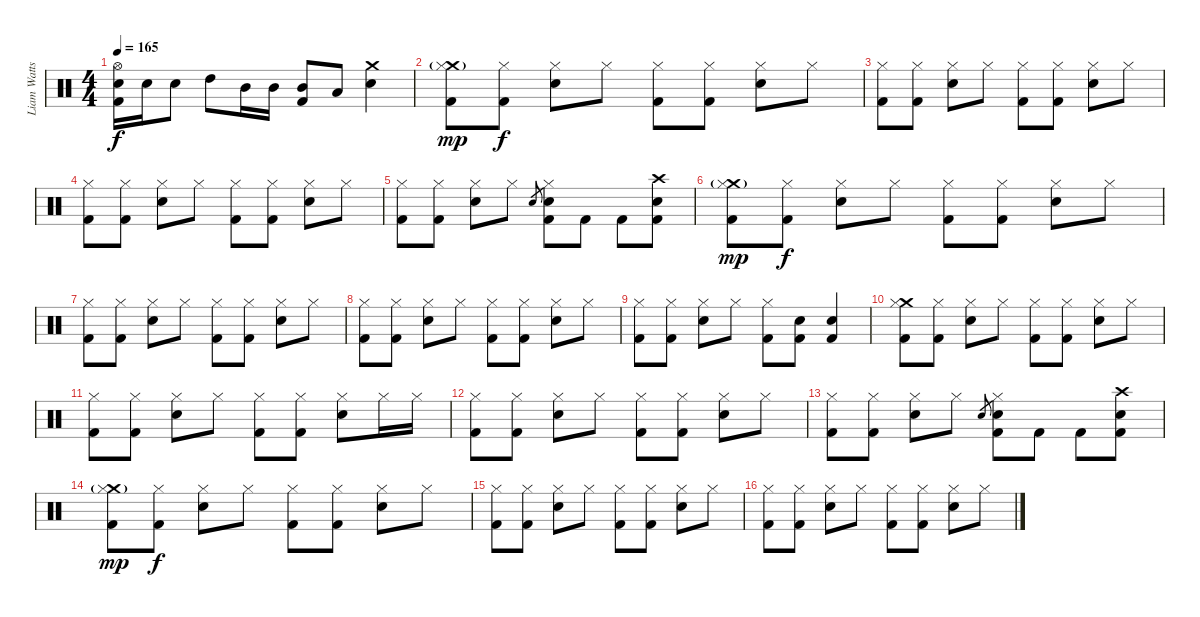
\track ("Liam Watts (Percussion)" "Liam Watts") {instrument percussion}
\staff {score}
\articulation defaults
\ts (4 4)
\tempo 165
\clef neutral
\ks c
("Hi-Hat (open)" "Snare (hit) 2" "Kick (hit) 2").16{dy f} "Snare (hit) 2".16 "Snare (hit) 2".8 "High Tom (hit)".8 "Mid Tom (hit)".16 "Mid Tom (hit)".16 ("Mid Tom (hit)" "Kick (hit) 2").8 "Low Tom (hit)".8 ("Crash medium (hit)" "Snare (hit) 2").4 |
("Crash medium (hit)"{g} "Hi-Hat (closed)" "Kick (hit) 2").8{dy mp} ("Hi-Hat (closed)" "Kick (hit) 2").8{dy f} ("Hi-Hat (closed)" "Snare (hit) 2").8 "Hi-Hat (closed)".8 ("Hi-Hat (closed)" "Kick (hit) 2").8 ("Hi-Hat (closed)" "Kick (hit) 2").8 ("Hi-Hat (closed)" "Snare (hit) 2").8 "Hi-Hat (closed)".8 |
("Hi-Hat (closed)" "Kick (hit) 2").8 ("Hi-Hat (closed)" "Kick (hit) 2").8 ("Hi-Hat (closed)" "Snare (hit) 2").8 "Hi-Hat (closed)".8 ("Hi-Hat (closed)" "Kick (hit) 2").8 ("Hi-Hat (closed)" "Kick (hit) 2").8 ("Hi-Hat (closed)" "Snare (hit) 2").8 "Hi-Hat (closed)".8 |
("Hi-Hat (closed)" "Kick (hit) 2").8 ("Hi-Hat (closed)" "Kick (hit) 2").8 ("Hi-Hat (closed)" "Snare (hit) 2").8 "Hi-Hat (closed)".8 ("Hi-Hat (closed)" "Kick (hit) 2").8 ("Hi-Hat (closed)" "Kick (hit) 2").8 ("Hi-Hat (closed)" "Snare (hit) 2").8 "Hi-Hat (closed)".8 |
("Hi-Hat (closed)" "Kick (hit) 2").8 ("Hi-Hat (closed)" "Kick (hit) 2").8 ("Hi-Hat (closed)" "Snare (hit) 2").8 "Hi-Hat (closed)".8 "Snare (hit) 2".8{gr} ("Hi-Hat (closed)" "Snare (hit) 2" "Kick (hit) 2").8 "Kick (hit) 2".8 "Kick (hit) 2".8 ("Crash high (hit)" "Snare (hit) 2" "Kick (hit) 2").8 |
("Crash medium (hit)"{g} "Hi-Hat (closed)" "Kick (hit) 2").8{dy mp} ("Hi-Hat (closed)" "Kick (hit) 2").8{dy f} ("Hi-Hat (closed)" "Snare (hit) 2").8 "Hi-Hat (closed)".8 ("Hi-Hat (closed)" "Kick (hit) 2").8 ("Hi-Hat (closed)" "Kick (hit) 2").8 ("Hi-Hat (closed)" "Snare (hit) 2").8 "Hi-Hat (closed)".8 |
("Hi-Hat (closed)" "Kick (hit) 2").8 ("Hi-Hat (closed)" "Kick (hit) 2").8 ("Hi-Hat (closed)" "Snare (hit) 2").8 "Hi-Hat (closed)".8 ("Hi-Hat (closed)" "Kick (hit) 2").8 ("Hi-Hat (closed)" "Kick (hit) 2").8 ("Hi-Hat (closed)" "Snare (hit) 2").8 "Hi-Hat (closed)".8 |
("Hi-Hat (closed)" "Kick (hit) 2").8 ("Hi-Hat (closed)" "Kick (hit) 2").8 ("Hi-Hat (closed)" "Snare (hit) 2").8 "Hi-Hat (closed)".8 ("Hi-Hat (closed)" "Kick (hit) 2").8 ("Hi-Hat (closed)" "Kick (hit) 2").8 ("Hi-Hat (closed)" "Snare (hit) 2").8 "Hi-Hat (closed)".8 |
("Hi-Hat (closed)" "Kick (hit) 2").8 ("Hi-Hat (closed)" "Kick (hit) 2").8 ("Hi-Hat (closed)" "Snare (hit) 2").8 "Hi-Hat (closed)".8 ("Hi-Hat (closed)" "Kick (hit) 2").8 ("Snare (hit) 2" "Kick (hit) 2").8 ("Snare (hit) 2" "Kick (hit) 2").4 |
("Crash medium (hit)" "Hi-Hat (closed)" "Kick (hit) 2").8 ("Hi-Hat (closed)" "Kick (hit) 2").8 ("Hi-Hat (closed)" "Snare (hit) 2").8 "Hi-Hat (closed)".8 ("Hi-Hat (closed)" "Kick (hit) 2").8 ("Hi-Hat (closed)" "Kick (hit) 2").8 ("Hi-Hat (closed)" "Snare (hit) 2").8 "Hi-Hat (closed)".8 |
("Hi-Hat (closed)" "Kick (hit) 2").8 ("Hi-Hat (closed)" "Kick (hit) 2").8 ("Hi-Hat (closed)" "Snare (hit) 2").8 "Hi-Hat (closed)".8 ("Hi-Hat (closed)" "Kick (hit) 2").8 ("Hi-Hat (closed)" "Kick (hit) 2").8 ("Hi-Hat (closed)" "Snare (hit) 2").8 "Hi-Hat (closed)".16 "Hi-Hat (closed)".16 |
("Hi-Hat (closed)" "Kick (hit) 2").8 ("Hi-Hat (closed)" "Kick (hit) 2").8 ("Hi-Hat (closed)" "Snare (hit) 2").8 "Hi-Hat (closed)".8 ("Hi-Hat (closed)" "Kick (hit) 2").8 ("Hi-Hat (closed)" "Kick (hit) 2").8 ("Hi-Hat (closed)" "Snare (hit) 2").8 "Hi-Hat (closed)".8 |
("Hi-Hat (closed)" "Kick (hit) 2").8 ("Hi-Hat (closed)" "Kick (hit) 2").8 ("Hi-Hat (closed)" "Snare (hit) 2").8 "Hi-Hat (closed)".8 "Snare (hit) 2".8{gr} ("Hi-Hat (closed)" "Snare (hit) 2" "Kick (hit) 2").8 "Kick (hit) 2".8 "Kick (hit) 2".8 ("Crash high (hit)" "Snare (hit) 2" "Kick (hit) 2").8 |
("Crash medium (hit)"{g} "Hi-Hat (closed)" "Kick (hit) 2").8{dy mp} ("Hi-Hat (closed)" "Kick (hit) 2").8{dy f} ("Hi-Hat (closed)" "Snare (hit) 2").8 "Hi-Hat (closed)".8 ("Hi-Hat (closed)" "Kick (hit) 2").8 ("Hi-Hat (closed)" "Kick (hit) 2").8 ("Hi-Hat (closed)" "Snare (hit) 2").8 "Hi-Hat (closed)".8 |
("Hi-Hat (closed)" "Kick (hit) 2").8 ("Hi-Hat (closed)" "Kick (hit) 2").8 ("Hi-Hat (closed)" "Snare (hit) 2").8 "Hi-Hat (closed)".8 ("Hi-Hat (closed)" "Kick (hit) 2").8 ("Hi-Hat (closed)" "Kick (hit) 2").8 ("Hi-Hat (closed)" "Snare (hit) 2").8 "Hi-Hat (closed)".8 |
("Hi-Hat (closed)" "Kick (hit) 2").8 ("Hi-Hat (closed)" "Kick (hit) 2").8 ("Hi-Hat (closed)" "Snare (hit) 2").8 "Hi-Hat (closed)".8 ("Hi-Hat (closed)" "Kick (hit) 2").8 ("Hi-Hat (closed)" "Kick (hit) 2").8 ("Hi-Hat (closed)" "Snare (hit) 2").8 "Hi-Hat (closed)".8
